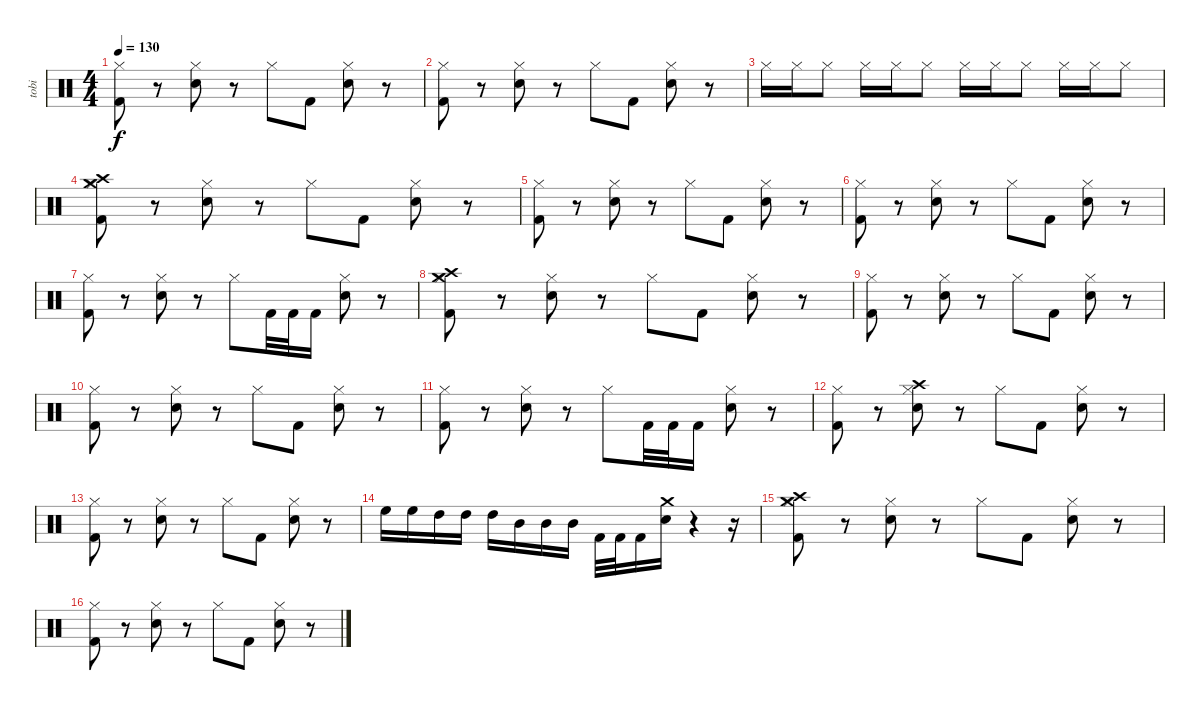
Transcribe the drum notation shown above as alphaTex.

\track ("tobi" "tobi") {instrument percussion}
\staff {score}
\articulation defaults
\ts (4 4)
\tempo 130
\clef neutral
\ks c
("Hi-Hat (closed)" "Kick (hit) 2").8{dy f} r.8 ("Hi-Hat (closed)" "Snare (hit) 2").8 r.8 "Hi-Hat (closed)".8 "Kick (hit) 2".8 ("Hi-Hat (closed)" "Snare (hit) 2").8 r.8 |
("Hi-Hat (closed)" "Kick (hit) 2").8 r.8 ("Hi-Hat (closed)" "Snare (hit) 2").8 r.8 "Hi-Hat (closed)".8 "Kick (hit) 2".8 ("Hi-Hat (closed)" "Snare (hit) 2").8 r.8 |
"Hi-Hat (closed)".16 "Hi-Hat (closed)".16 "Hi-Hat (closed)".8 "Hi-Hat (closed)".16 "Hi-Hat (closed)".16 "Hi-Hat (closed)".8 "Hi-Hat (closed)".16 "Hi-Hat (closed)".16 "Hi-Hat (closed)".8 "Hi-Hat (closed)".16 "Hi-Hat (closed)".16 "Hi-Hat (closed)".8 |
("Crash medium (hit)" "Hi-Hat (closed)" "Crash high (hit)" "Kick (hit) 2").8 r.8 ("Hi-Hat (closed)" "Snare (hit) 2").8 r.8 "Hi-Hat (closed)".8 "Kick (hit) 2".8 ("Hi-Hat (closed)" "Snare (hit) 2").8 r.8 |
("Hi-Hat (closed)" "Kick (hit) 2").8 r.8 ("Hi-Hat (closed)" "Snare (hit) 2").8 r.8 "Hi-Hat (closed)".8 "Kick (hit) 2".8 ("Hi-Hat (closed)" "Snare (hit) 2").8 r.8 |
("Hi-Hat (closed)" "Kick (hit) 2").8 r.8 ("Hi-Hat (closed)" "Snare (hit) 2").8 r.8 "Hi-Hat (closed)".8 "Kick (hit) 2".8 ("Hi-Hat (closed)" "Snare (hit) 2").8 r.8 |
("Hi-Hat (closed)" "Kick (hit) 2").8 r.8 ("Hi-Hat (closed)" "Snare (hit) 2").8 r.8 "Hi-Hat (closed)".8 "Kick (hit) 2".32 "Kick (hit) 2".32 "Kick (hit) 2".16 ("Hi-Hat (closed)" "Snare (hit) 2").8 r.8 |
("Crash medium (hit)" "Hi-Hat (closed)" "Crash high (hit)" "Kick (hit) 2").8 r.8 ("Hi-Hat (closed)" "Snare (hit) 2").8 r.8 "Hi-Hat (closed)".8 "Kick (hit) 2".8 ("Hi-Hat (closed)" "Snare (hit) 2").8 r.8 |
("Hi-Hat (closed)" "Kick (hit) 2").8 r.8 ("Hi-Hat (closed)" "Snare (hit) 2").8 r.8 "Hi-Hat (closed)".8 "Kick (hit) 2".8 ("Hi-Hat (closed)" "Snare (hit) 2").8 r.8 |
("Hi-Hat (closed)" "Kick (hit) 2").8 r.8 ("Hi-Hat (closed)" "Snare (hit) 2").8 r.8 "Hi-Hat (closed)".8 "Kick (hit) 2".8 ("Hi-Hat (closed)" "Snare (hit) 2").8 r.8 |
("Hi-Hat (closed)" "Kick (hit) 2").8 r.8 ("Hi-Hat (closed)" "Snare (hit) 2").8 r.8 "Hi-Hat (closed)".8 "Kick (hit) 2".32 "Kick (hit) 2".32 "Kick (hit) 2".16 ("Hi-Hat (closed)" "Snare (hit) 2").8 r.8 |
("Hi-Hat (closed)" "Kick (hit) 2").8 r.8 ("Crash high (hit)" "Hi-Hat (closed)" "Snare (hit) 2").8 r.8 "Hi-Hat (closed)".8 "Kick (hit) 2".8 ("Hi-Hat (closed)" "Snare (hit) 2").8 r.8 |
("Hi-Hat (closed)" "Kick (hit) 2").8 r.8 ("Hi-Hat (closed)" "Snare (hit) 2").8 r.8 "Hi-Hat (closed)".8 "Kick (hit) 2".8 ("Hi-Hat (closed)" "Snare (hit) 2").8 r.8 |
"High Floor Tom (hit)".16 "High Floor Tom (hit)".16 "High Tom (hit)".16 "High Tom (hit)".16 "High Tom (hit)".16 "Mid Tom (hit)".16 "Mid Tom (hit)".16 "Mid Tom (hit)".16 "Kick (hit) 2".32 "Kick (hit) 2".32 "Kick (hit) 2".16 ("Crash medium (hit)" "Snare (hit) 2").16 r.4 r.16 |
("Crash medium (hit)" "Hi-Hat (closed)" "Crash high (hit)" "Kick (hit) 2").8 r.8 ("Hi-Hat (closed)" "Snare (hit) 2").8 r.8 "Hi-Hat (closed)".8 "Kick (hit) 2".8 ("Hi-Hat (closed)" "Snare (hit) 2").8 r.8 |
("Hi-Hat (closed)" "Kick (hit) 2").8 r.8 ("Hi-Hat (closed)" "Snare (hit) 2").8 r.8 "Hi-Hat (closed)".8 "Kick (hit) 2".8 ("Hi-Hat (closed)" "Snare (hit) 2").8 r.8
